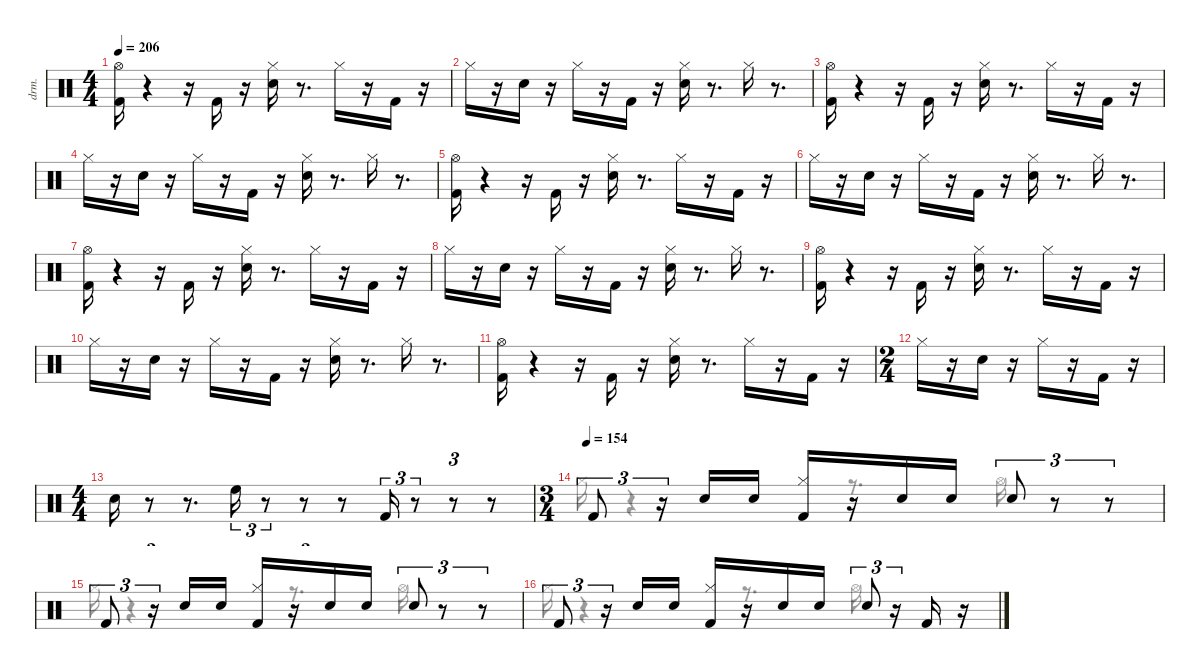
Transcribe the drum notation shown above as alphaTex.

\defaultSystemsLayout 4
\hideDynamics
\bracketExtendMode nobrackets
\otherSystemsTrackNameOrientation horizontal
\track ("EZdrummer 3" "drm.") {instrument percussion}
\staff {score}
\articulation defaults
\voice
\ts (4 4)
\tempo 206
\clef neutral
\ks aminor
("Kick (hit) 2" "Hi-Hat (open)"{acc #}).16{dy ff beam Down} r.4{beam Down} r.16{beam Down} "Kick (hit) 2".16{beam Up} r.16{beam Up} ("Snare (hit) 2" "Hi-Hat (closed)"{acc #}).16{beam Down} r.8{d beam Down} "Hi-Hat (closed)"{acc #}.16{dy p beam Down} r.16{beam Down} "Kick (hit) 2".16{dy ff beam Down} r.16{beam Down} |
"Hi-Hat (closed)"{acc #}.16{dy fff beam Down} r.16{beam Down} "Snare (hit) 2".16{dy ff beam Down} r.16{beam Down} "Hi-Hat (closed)"{acc #}.16{dy mp beam Down} r.16{beam Down} "Kick (hit) 2".16{dy ff beam Down} r.16{beam Down} ("Snare (hit) 2" "Hi-Hat (closed)"{acc #}).16{beam Down} r.8{d beam Down} "Hi-Hat (closed)"{acc #}.16{dy pp beam Down} r.8{d beam Down} |
("Kick (hit) 2" "Hi-Hat (open)"{acc #}).16{dy ff beam Down} r.4{beam Down} r.16{beam Down} "Kick (hit) 2".16{beam Up} r.16{beam Up} ("Snare (hit) 2" "Hi-Hat (closed)"{acc #}).16{beam Down} r.8{d beam Down} "Hi-Hat (closed)"{acc #}.16{dy p beam Down} r.16{beam Down} "Kick (hit) 2".16{dy ff beam Down} r.16{beam Down} |
"Hi-Hat (closed)"{acc #}.16{dy fff beam Down} r.16{beam Down} "Snare (hit) 2".16{dy ff beam Down} r.16{beam Down} "Hi-Hat (closed)"{acc #}.16{dy mp beam Down} r.16{beam Down} "Kick (hit) 2".16{dy ff beam Down} r.16{beam Down} ("Snare (hit) 2" "Hi-Hat (closed)"{acc #}).16{beam Down} r.8{d beam Down} "Hi-Hat (closed)"{acc #}.16{dy pp beam Down} r.8{d beam Down} |
("Kick (hit) 2" "Hi-Hat (open)"{acc #}).16{dy ff beam Down} r.4{beam Down} r.16{beam Down} "Kick (hit) 2".16{beam Up} r.16{beam Up} ("Snare (hit) 2" "Hi-Hat (closed)"{acc #}).16{beam Down} r.8{d beam Down} "Hi-Hat (closed)"{acc #}.16{dy p beam Down} r.16{beam Down} "Kick (hit) 2".16{dy ff beam Down} r.16{beam Down} |
"Hi-Hat (closed)"{acc #}.16{dy fff beam Down} r.16{beam Down} "Snare (hit) 2".16{dy ff beam Down} r.16{beam Down} "Hi-Hat (closed)"{acc #}.16{dy mp beam Down} r.16{beam Down} "Kick (hit) 2".16{dy ff beam Down} r.16{beam Down} ("Snare (hit) 2" "Hi-Hat (closed)"{acc #}).16{beam Down} r.8{d beam Down} "Hi-Hat (closed)"{acc #}.16{dy pp beam Down} r.8{d beam Down} |
("Kick (hit) 2" "Hi-Hat (open)"{acc #}).16{dy ff beam Down} r.4{beam Down} r.16{beam Down} "Kick (hit) 2".16{beam Up} r.16{beam Up} ("Snare (hit) 2" "Hi-Hat (closed)"{acc #}).16{beam Down} r.8{d beam Down} "Hi-Hat (closed)"{acc #}.16{dy p beam Down} r.16{beam Down} "Kick (hit) 2".16{dy ff beam Down} r.16{beam Down} |
"Hi-Hat (closed)"{acc #}.16{dy fff beam Down} r.16{beam Down} "Snare (hit) 2".16{dy ff beam Down} r.16{beam Down} "Hi-Hat (closed)"{acc #}.16{dy mp beam Down} r.16{beam Down} "Kick (hit) 2".16{dy ff beam Down} r.16{beam Down} ("Snare (hit) 2" "Hi-Hat (closed)"{acc #}).16{beam Down} r.8{d beam Down} "Hi-Hat (closed)"{acc #}.16{dy pp beam Down} r.8{d beam Down} |
("Kick (hit) 2" "Hi-Hat (open)"{acc #}).16{dy ff beam Down} r.4{beam Down} r.16{beam Down} "Kick (hit) 2".16{beam Up} r.16{beam Up} ("Snare (hit) 2" "Hi-Hat (closed)"{acc #}).16{beam Down} r.8{d beam Down} "Hi-Hat (closed)"{acc #}.16{dy p beam Down} r.16{beam Down} "Kick (hit) 2".16{dy ff beam Down} r.16{beam Down} |
"Hi-Hat (closed)"{acc #}.16{dy fff beam Down} r.16{beam Down} "Snare (hit) 2".16{dy ff beam Down} r.16{beam Down} "Hi-Hat (closed)"{acc #}.16{dy mp beam Down} r.16{beam Down} "Kick (hit) 2".16{dy ff beam Down} r.16{beam Down} ("Snare (hit) 2" "Hi-Hat (closed)"{acc #}).16{beam Down} r.8{d beam Down} "Hi-Hat (closed)"{acc #}.16{dy pp beam Down} r.8{d beam Down} |
("Kick (hit) 2" "Hi-Hat (open)"{acc #}).16{dy ff beam Down} r.4{beam Down} r.16{beam Down} "Kick (hit) 2".16{beam Up} r.16{beam Up} ("Snare (hit) 2" "Hi-Hat (closed)"{acc #}).16{beam Down} r.8{d beam Down} "Hi-Hat (closed)"{acc #}.16{dy p beam Down} r.16{beam Down} "Kick (hit) 2".16{dy ff beam Down} r.16{beam Down} |
\ts (2 4)
"Hi-Hat (closed)"{acc #}.16{dy fff beam Down} r.16{beam Down} "Snare (hit) 2".16{dy ff beam Down} r.16{beam Down} "Hi-Hat (closed)"{acc #}.16{dy mp beam Down} r.16{beam Down} "Kick (hit) 2".16{dy ff beam Down} r.16{beam Down} |
\ts (4 4)
"Snare (hit) 2".16{beam Down} r.8{tu (3 2) beam Down} r.8{d beam Down} "High Floor Tom (hit)".16{tu (3 2) beam Down} r.8{tu (3 2) beam Down} r.8{tu (3 2) beam Down} r.8{beam Down} "Kick (hit) 2".16{tu (3 2) beam Up} r.8{tu (3 2) beam Up} r.8{tu (3 2) beam Up} r.8{beam Up} |
\ts (3 4)
\tempo (154)
"Kick (hit) 2".8{tu (3 2) beam Up} r.16{tu (3 2) beam Up} "Snare (hit) 2".16{dy ppp beam Up} "Snare (hit) 2".16{beam Up} ("Kick (hit) 2" "Hi-Hat (closed)"{acc #}).16{dy f beam Up} r.16{beam Up} "Snare (hit) 2".16{dy ppp beam Up} "Snare (hit) 2".16{beam Up} "Snare (hit) 2".8{tu (3 2) dy ff beam Up} r.8{tu (3 2) beam Up} r.8{tu (3 2) beam Up} |
"Kick (hit) 2".8{tu (3 2) beam Up} r.16{tu (3 2) beam Up} "Snare (hit) 2".16{dy ppp beam Up} "Snare (hit) 2".16{beam Up} ("Kick (hit) 2" "Hi-Hat (closed)"{acc #}).16{dy f beam Up} r.16{beam Up} "Snare (hit) 2".16{dy ppp beam Up} "Snare (hit) 2".16{beam Up} "Snare (hit) 2".8{tu (3 2) dy ff beam Up} r.8{tu (3 2) beam Up} r.8{tu (3 2) beam Up} |
"Kick (hit) 2".8{tu (3 2) beam Up} r.16{tu (3 2) beam Up} "Snare (hit) 2".16{dy ppp beam Up} "Snare (hit) 2".16{beam Up} ("Kick (hit) 2" "Hi-Hat (closed)"{acc #}).16{dy f beam Up} r.16{beam Up} "Snare (hit) 2".16{dy ppp beam Up} "Snare (hit) 2".16{beam Up} "Snare (hit) 2".8{tu (3 2) dy ff beam Up} r.16{tu (3 2) beam Up} "Kick (hit) 2".16{dy pp beam Up} r.16{beam Up}
\voice
\clef neutral
\ottava regular
\simile none
\ks aminor
|
|
|
|
|
|
|
|
|
|
|
|
|
"Hi-Hat (closed)"{acc #}.16{beam Down} r.4{beam Down} r.8{d beam Down} "Hi-Hat (open)"{acc #}.16{beam Down} |
"Hi-Hat (closed)"{acc #}.16{beam Down} r.4{beam Down} r.8{d beam Down} "Hi-Hat (open)"{acc #}.16{beam Down} |
"Hi-Hat (closed)"{acc #}.16{beam Down} r.4{beam Down} r.8{d beam Down} "Hi-Hat (open)"{acc #}.16{beam Down}
